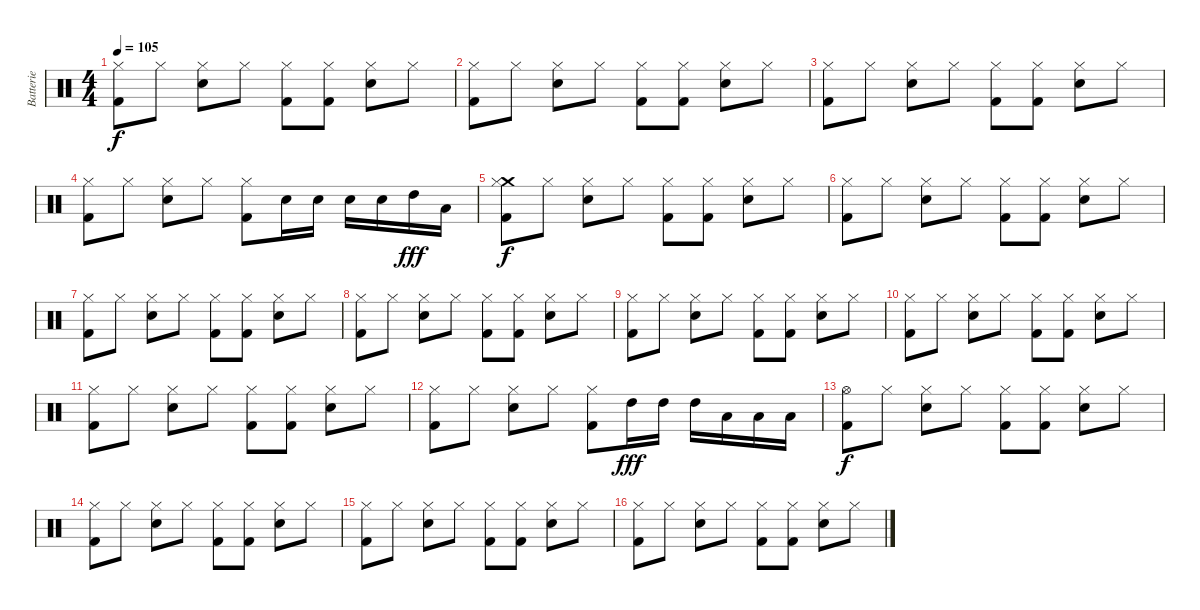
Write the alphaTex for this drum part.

\track ("Batterie" "Batterie") {instrument percussion}
\staff {score}
\articulation defaults
\ts (4 4)
\tempo 105
\clef neutral
\ks c
("Hi-Hat (closed)" "Kick (hit) 2").8{dy f} "Hi-Hat (closed)".8 ("Hi-Hat (closed)" "Electric Snare (hit)").8 "Hi-Hat (closed)".8 ("Hi-Hat (closed)" "Kick (hit) 2").8 ("Hi-Hat (closed)" "Kick (hit) 2").8 ("Hi-Hat (closed)" "Electric Snare (hit)").8 "Hi-Hat (closed)".8 |
("Hi-Hat (closed)" "Kick (hit) 2").8 "Hi-Hat (closed)".8 ("Hi-Hat (closed)" "Electric Snare (hit)").8 "Hi-Hat (closed)".8 ("Hi-Hat (closed)" "Kick (hit) 2").8 ("Hi-Hat (closed)" "Kick (hit) 2").8 ("Hi-Hat (closed)" "Electric Snare (hit)").8 "Hi-Hat (closed)".8 |
("Hi-Hat (closed)" "Kick (hit) 2").8 "Hi-Hat (closed)".8 ("Hi-Hat (closed)" "Electric Snare (hit)").8 "Hi-Hat (closed)".8 ("Hi-Hat (closed)" "Kick (hit) 2").8 ("Hi-Hat (closed)" "Kick (hit) 2").8 ("Hi-Hat (closed)" "Electric Snare (hit)").8 "Hi-Hat (closed)".8 |
("Hi-Hat (closed)" "Kick (hit) 2").8 "Hi-Hat (closed)".8 ("Hi-Hat (closed)" "Electric Snare (hit)").8 "Hi-Hat (closed)".8 ("Hi-Hat (closed)" "Kick (hit) 2").8 "Electric Snare (hit)".16 "Electric Snare (hit)".16 "Electric Snare (hit)".16 "Electric Snare (hit)".16 "High Tom (hit)".16{dy fff} "Low Tom (hit)".16 |
("Crash medium (hit)" "Hi-Hat (closed)" "Kick (hit) 2").8{dy f} "Hi-Hat (closed)".8 ("Hi-Hat (closed)" "Electric Snare (hit)").8 "Hi-Hat (closed)".8 ("Hi-Hat (closed)" "Kick (hit) 2").8 ("Hi-Hat (closed)" "Kick (hit) 2").8 ("Hi-Hat (closed)" "Electric Snare (hit)").8 "Hi-Hat (closed)".8 |
("Hi-Hat (closed)" "Kick (hit) 2").8 "Hi-Hat (closed)".8 ("Hi-Hat (closed)" "Electric Snare (hit)").8 "Hi-Hat (closed)".8 ("Hi-Hat (closed)" "Kick (hit) 2").8 ("Hi-Hat (closed)" "Kick (hit) 2").8 ("Hi-Hat (closed)" "Electric Snare (hit)").8 "Hi-Hat (closed)".8 |
("Hi-Hat (closed)" "Kick (hit) 2").8 "Hi-Hat (closed)".8 ("Hi-Hat (closed)" "Electric Snare (hit)").8 "Hi-Hat (closed)".8 ("Hi-Hat (closed)" "Kick (hit) 2").8 ("Hi-Hat (closed)" "Kick (hit) 2").8 ("Hi-Hat (closed)" "Electric Snare (hit)").8 "Hi-Hat (closed)".8 |
("Hi-Hat (closed)" "Kick (hit) 2").8 "Hi-Hat (closed)".8 ("Hi-Hat (closed)" "Electric Snare (hit)").8 "Hi-Hat (closed)".8 ("Hi-Hat (closed)" "Kick (hit) 2").8 ("Hi-Hat (closed)" "Kick (hit) 2").8 ("Hi-Hat (closed)" "Electric Snare (hit)").8 "Hi-Hat (closed)".8 |
("Hi-Hat (closed)" "Kick (hit) 2").8 "Hi-Hat (closed)".8 ("Hi-Hat (closed)" "Electric Snare (hit)").8 "Hi-Hat (closed)".8 ("Hi-Hat (closed)" "Kick (hit) 2").8 ("Hi-Hat (closed)" "Kick (hit) 2").8 ("Hi-Hat (closed)" "Electric Snare (hit)").8 "Hi-Hat (closed)".8 |
("Hi-Hat (closed)" "Kick (hit) 2").8 "Hi-Hat (closed)".8 ("Hi-Hat (closed)" "Electric Snare (hit)").8 "Hi-Hat (closed)".8 ("Hi-Hat (closed)" "Kick (hit) 2").8 ("Hi-Hat (closed)" "Kick (hit) 2").8 ("Hi-Hat (closed)" "Electric Snare (hit)").8 "Hi-Hat (closed)".8 |
("Hi-Hat (closed)" "Kick (hit) 2").8 "Hi-Hat (closed)".8 ("Hi-Hat (closed)" "Electric Snare (hit)").8 "Hi-Hat (closed)".8 ("Hi-Hat (closed)" "Kick (hit) 2").8 ("Hi-Hat (closed)" "Kick (hit) 2").8 ("Hi-Hat (closed)" "Electric Snare (hit)").8 "Hi-Hat (closed)".8 |
("Hi-Hat (closed)" "Kick (hit) 2").8 "Hi-Hat (closed)".8 ("Hi-Hat (closed)" "Electric Snare (hit)").8 "Hi-Hat (closed)".8 ("Hi-Hat (closed)" "Kick (hit) 2").8 "High Tom (hit)".16{dy fff} "High Tom (hit)".16 "High Tom (hit)".16 "Low Tom (hit)".16 "Low Tom (hit)".16 "Low Tom (hit)".16 |
("Hi-Hat (open)" "Kick (hit) 2").8{dy f} "Hi-Hat (closed)".8 ("Hi-Hat (closed)" "Electric Snare (hit)").8 "Hi-Hat (closed)".8 ("Hi-Hat (closed)" "Kick (hit) 2").8 ("Hi-Hat (closed)" "Kick (hit) 2").8 ("Hi-Hat (closed)" "Electric Snare (hit)").8 "Hi-Hat (closed)".8 |
("Hi-Hat (closed)" "Kick (hit) 2").8 "Hi-Hat (closed)".8 ("Hi-Hat (closed)" "Electric Snare (hit)").8 "Hi-Hat (closed)".8 ("Hi-Hat (closed)" "Kick (hit) 2").8 ("Hi-Hat (closed)" "Kick (hit) 2").8 ("Hi-Hat (closed)" "Electric Snare (hit)").8 "Hi-Hat (closed)".8 |
("Hi-Hat (closed)" "Kick (hit) 2").8 "Hi-Hat (closed)".8 ("Hi-Hat (closed)" "Electric Snare (hit)").8 "Hi-Hat (closed)".8 ("Hi-Hat (closed)" "Kick (hit) 2").8 ("Hi-Hat (closed)" "Kick (hit) 2").8 ("Hi-Hat (closed)" "Electric Snare (hit)").8 "Hi-Hat (closed)".8 |
("Hi-Hat (closed)" "Kick (hit) 2").8 "Hi-Hat (closed)".8 ("Hi-Hat (closed)" "Electric Snare (hit)").8 "Hi-Hat (closed)".8 ("Hi-Hat (closed)" "Kick (hit) 2").8 ("Hi-Hat (closed)" "Kick (hit) 2").8 ("Hi-Hat (closed)" "Electric Snare (hit)").8 "Hi-Hat (closed)".8
